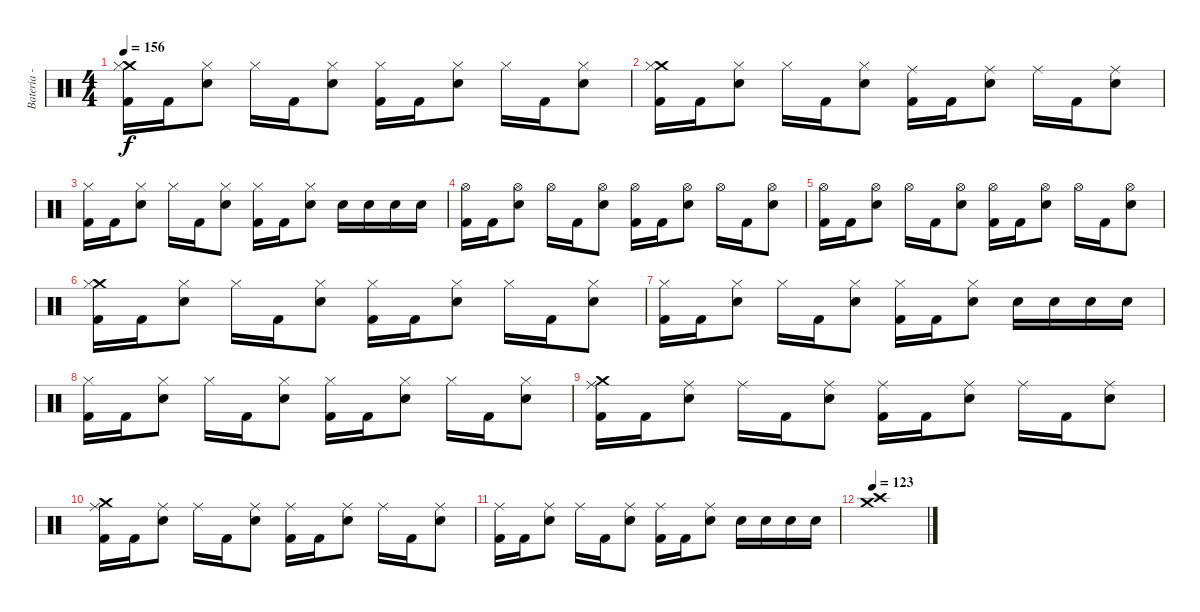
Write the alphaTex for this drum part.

\track ("Bateria - Larzon" "Bateria - ") {instrument percussion}
\staff {score}
\articulation defaults
\ts (4 4)
\tempo 156
\clef neutral
\ks c
("Crash medium (hit)" "Kick (hit) 2" "Hi-Hat (closed)").16{dy f} "Kick (hit) 2".16 ("Snare (hit) 2" "Hi-Hat (closed)").8 "Hi-Hat (closed)".16 "Kick (hit) 2".16 ("Snare (hit) 2" "Hi-Hat (closed)").8 ("Kick (hit) 2" "Hi-Hat (closed)").16 "Kick (hit) 2".16 ("Snare (hit) 2" "Hi-Hat (closed)").8 "Hi-Hat (closed)".16 "Kick (hit) 2".16 ("Snare (hit) 2" "Hi-Hat (closed)").8 |
("Crash medium (hit)" "Kick (hit) 2" "Hi-Hat (closed)").16 "Kick (hit) 2".16 ("Snare (hit) 2" "Hi-Hat (closed)").8 "Hi-Hat (closed)".16 "Kick (hit) 2".16 ("Snare (hit) 2" "Hi-Hat (closed)").8 ("Kick (hit) 2" "Ride (middle)").16 "Kick (hit) 2".16 ("Snare (hit) 2" "Ride (middle)").8 "Ride (middle)".16 "Kick (hit) 2".16 ("Snare (hit) 2" "Ride (middle)").8 |
("Kick (hit) 2" "Hi-Hat (closed)").16 "Kick (hit) 2".16 ("Snare (hit) 2" "Hi-Hat (closed)").8 "Hi-Hat (closed)".16 "Kick (hit) 2".16 ("Snare (hit) 2" "Hi-Hat (closed)").8 ("Kick (hit) 2" "Hi-Hat (closed)").16 "Kick (hit) 2".16 ("Snare (hit) 2" "Hi-Hat (closed)").8 "Snare (hit) 2".16 "Snare (hit) 2".16 "Snare (hit) 2".16 "Snare (hit) 2".16 |
("Kick (hit) 2" "Hi-Hat (open)").16 "Kick (hit) 2".16 ("Snare (hit) 2" "Hi-Hat (open)").8 "Hi-Hat (open)".16 "Kick (hit) 2".16 ("Snare (hit) 2" "Hi-Hat (open)").8 ("Kick (hit) 2" "Hi-Hat (open)").16 "Kick (hit) 2".16 ("Snare (hit) 2" "Hi-Hat (open)").8 "Hi-Hat (open)".16 "Kick (hit) 2".16 ("Snare (hit) 2" "Hi-Hat (open)").8 |
("Kick (hit) 2" "Hi-Hat (open)").16 "Kick (hit) 2".16 ("Snare (hit) 2" "Hi-Hat (open)").8 "Hi-Hat (open)".16 "Kick (hit) 2".16 ("Snare (hit) 2" "Hi-Hat (open)").8 ("Kick (hit) 2" "Hi-Hat (open)").16 "Kick (hit) 2".16 ("Snare (hit) 2" "Hi-Hat (open)").8 "Hi-Hat (open)".16 "Kick (hit) 2".16 ("Snare (hit) 2" "Hi-Hat (open)").8 |
("Crash medium (hit)" "Kick (hit) 2" "Hi-Hat (closed)").16 "Kick (hit) 2".16 ("Snare (hit) 2" "Hi-Hat (closed)").8 "Hi-Hat (closed)".16 "Kick (hit) 2".16 ("Snare (hit) 2" "Hi-Hat (closed)").8 ("Kick (hit) 2" "Hi-Hat (closed)").16 "Kick (hit) 2".16 ("Snare (hit) 2" "Hi-Hat (closed)").8 "Hi-Hat (closed)".16 "Kick (hit) 2".16 ("Snare (hit) 2" "Hi-Hat (closed)").8 |
("Kick (hit) 2" "Hi-Hat (closed)").16 "Kick (hit) 2".16 ("Snare (hit) 2" "Hi-Hat (closed)").8 "Hi-Hat (closed)".16 "Kick (hit) 2".16 ("Snare (hit) 2" "Hi-Hat (closed)").8 ("Kick (hit) 2" "Hi-Hat (closed)").16 "Kick (hit) 2".16 ("Snare (hit) 2" "Hi-Hat (closed)").8 "Snare (hit) 2".16 "Snare (hit) 2".16 "Snare (hit) 2".16 "Snare (hit) 2".16 |
("Kick (hit) 2" "Hi-Hat (closed)").16 "Kick (hit) 2".16 ("Snare (hit) 2" "Hi-Hat (closed)").8 "Hi-Hat (closed)".16 "Kick (hit) 2".16 ("Snare (hit) 2" "Hi-Hat (closed)").8 ("Kick (hit) 2" "Hi-Hat (closed)").16 "Kick (hit) 2".16 ("Snare (hit) 2" "Hi-Hat (closed)").8 "Hi-Hat (closed)".16 "Kick (hit) 2".16 ("Snare (hit) 2" "Hi-Hat (closed)").8 |
("Crash medium (hit)" "Kick (hit) 2" "Ride (middle)").16 "Kick (hit) 2".16 ("Snare (hit) 2" "Ride (middle)").8 "Ride (middle)".16 "Kick (hit) 2".16 ("Snare (hit) 2" "Ride (middle)").8 ("Kick (hit) 2" "Ride (middle)").16 "Kick (hit) 2".16 ("Snare (hit) 2" "Ride (middle)").8 "Ride (middle)".16 "Kick (hit) 2".16 ("Snare (hit) 2" "Ride (middle)").8 |
("Crash medium (hit)" "Kick (hit) 2" "Ride (middle)").16 "Kick (hit) 2".16 ("Snare (hit) 2" "Ride (middle)").8 "Ride (middle)".16 "Kick (hit) 2".16 ("Snare (hit) 2" "Ride (middle)").8 ("Kick (hit) 2" "Ride (middle)").16 "Kick (hit) 2".16 ("Snare (hit) 2" "Ride (middle)").8 "Ride (middle)".16 "Kick (hit) 2".16 ("Snare (hit) 2" "Ride (middle)").8 |
("Kick (hit) 2" "Ride (middle)").16 "Kick (hit) 2".16 ("Snare (hit) 2" "Ride (middle)").8 "Ride (middle)".16 "Kick (hit) 2".16 ("Snare (hit) 2" "Ride (middle)").8 ("Kick (hit) 2" "Ride (middle)").16 "Kick (hit) 2".16 ("Snare (hit) 2" "Ride (middle)").8 "Snare (hit) 2".16 "Snare (hit) 2".16 "Snare (hit) 2".16 "Snare (hit) 2".16 |
\tempo 123
("Crash medium (hit)" "Crash high (hit)").1
